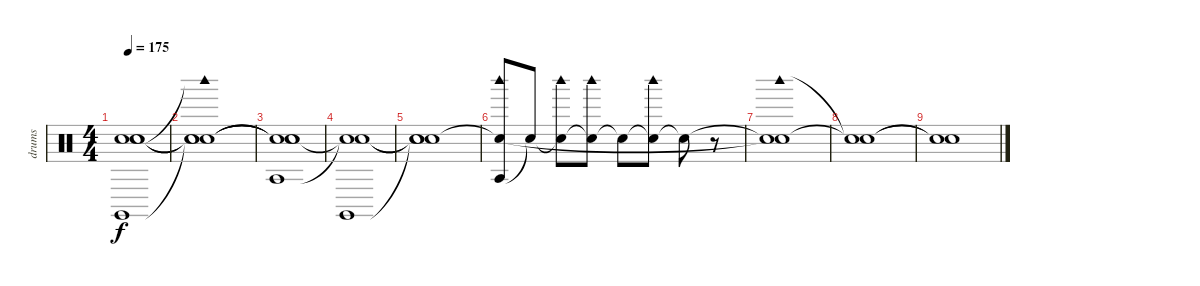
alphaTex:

\track ("drums" "drums") {instrument percussion}
\staff {score}
\articulation defaults
\ts (4 4)
\tempo 175
\clef neutral
\ks c
("Snare (hit)"{t} "Claves (hit)" "Snare (hit)"{t} "Snare (hit)"{t}).1{dy f} |
("Snare (hit)"{t} "Snare (hit)"{t} "Woodblock high (hit)"{t} "Snare (hit)"{t}).1 |
("Snare (hit)"{t} "Snare (hit)"{t} "Agogo tow (hit)" "Snare (hit)"{t}).1 |
("Claves (hit)" "Snare (hit)"{t} "Snare (hit)"{t}).1 |
("Snare (hit)"{t} "Snare (hit)"{t} "Snare (hit)"{t}).1 |
("Agogo tow (hit)" "Woodblock high (hit)" "Snare (hit)"{t}).8 "Snare (hit)"{t}.8 ("Snare (hit)"{t} "Woodblock high (hit)").8 ("Snare (hit)"{t} "Woodblock high (hit)").8 "Snare (hit)"{t}.8 ("Snare (hit)"{t} "Woodblock high (hit)").8 "Snare (hit)"{t}.8 r.8 |
("Snare (hit)"{t} "Woodblock high (hit)" "Snare (hit)"{t}).1 |
("Snare (hit)"{t} "Snare (hit)"{t}).1 |
("Snare (hit)"{t} "Snare (hit)"{t}).1{volume 0}
